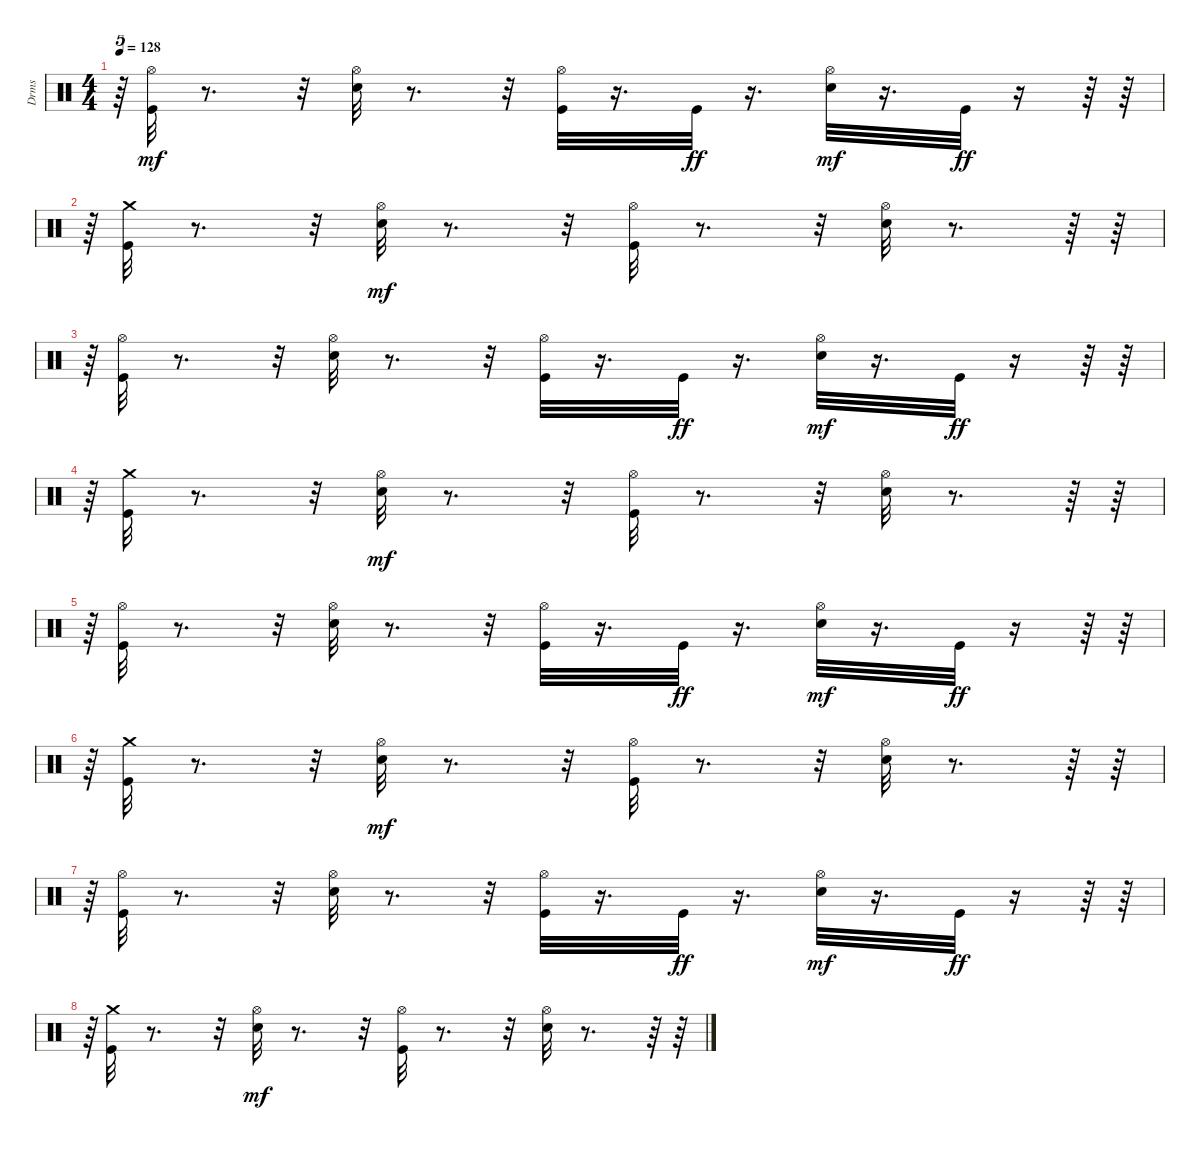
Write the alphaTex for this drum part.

\track ("Drms" "Drms") {instrument percussion}
\staff {score}
\articulation defaults
\ts (4 4)
\tempo 128
\clef neutral
\ks c
r.64{tu (5 4) dy mf} ("Kick (hit)" "Hi-Hat (open)").32 r.8{d} r.32 ("Snare (hit) 2" "Hi-Hat (open)").32 r.8{d} r.32 ("Kick (hit)" "Hi-Hat (open)").32 r.16{d} "Kick (hit)".32{dy ff} r.16{d} ("Snare (hit) 2" "Hi-Hat (open)").32{dy mf} r.16{d} "Kick (hit)".32{dy ff} r.16 r.64 r.64 |
r.64{tu (5 4)} ("Kick (hit)" "Crash medium (hit)").32 r.8{d} r.32 ("Snare (hit) 2" "Hi-Hat (open)").32{dy mf} r.8{d} r.32 ("Kick (hit)" "Hi-Hat (open)").32 r.8{d} r.32 ("Snare (hit) 2" "Hi-Hat (open)").32 r.8{d} r.64 r.64 |
r.64{tu (5 4)} ("Kick (hit)" "Hi-Hat (open)").32 r.8{d} r.32 ("Snare (hit) 2" "Hi-Hat (open)").32 r.8{d} r.32 ("Kick (hit)" "Hi-Hat (open)").32 r.16{d} "Kick (hit)".32{dy ff} r.16{d} ("Snare (hit) 2" "Hi-Hat (open)").32{dy mf} r.16{d} "Kick (hit)".32{dy ff} r.16 r.64 r.64 |
r.64{tu (5 4)} ("Kick (hit)" "Crash medium (hit)").32 r.8{d} r.32 ("Snare (hit) 2" "Hi-Hat (open)").32{dy mf} r.8{d} r.32 ("Kick (hit)" "Hi-Hat (open)").32 r.8{d} r.32 ("Snare (hit) 2" "Hi-Hat (open)").32 r.8{d} r.64 r.64 |
r.64{tu (5 4)} ("Kick (hit)" "Hi-Hat (open)").32 r.8{d} r.32 ("Snare (hit) 2" "Hi-Hat (open)").32 r.8{d} r.32 ("Kick (hit)" "Hi-Hat (open)").32 r.16{d} "Kick (hit)".32{dy ff} r.16{d} ("Snare (hit) 2" "Hi-Hat (open)").32{dy mf} r.16{d} "Kick (hit)".32{dy ff} r.16 r.64 r.64 |
r.64{tu (5 4)} ("Kick (hit)" "Crash medium (hit)").32 r.8{d} r.32 ("Snare (hit) 2" "Hi-Hat (open)").32{dy mf} r.8{d} r.32 ("Kick (hit)" "Hi-Hat (open)").32 r.8{d} r.32 ("Snare (hit) 2" "Hi-Hat (open)").32 r.8{d} r.64 r.64 |
r.64{tu (5 4)} ("Kick (hit)" "Hi-Hat (open)").32 r.8{d} r.32 ("Snare (hit) 2" "Hi-Hat (open)").32 r.8{d} r.32 ("Kick (hit)" "Hi-Hat (open)").32 r.16{d} "Kick (hit)".32{dy ff} r.16{d} ("Snare (hit) 2" "Hi-Hat (open)").32{dy mf} r.16{d} "Kick (hit)".32{dy ff} r.16 r.64 r.64 |
r.64{tu (5 4)} ("Kick (hit)" "Crash medium (hit)").32 r.8{d} r.32 ("Snare (hit) 2" "Hi-Hat (open)").32{dy mf} r.8{d} r.32 ("Kick (hit)" "Hi-Hat (open)").32 r.8{d} r.32 ("Snare (hit) 2" "Hi-Hat (open)").32 r.8{d} r.64 r.64
